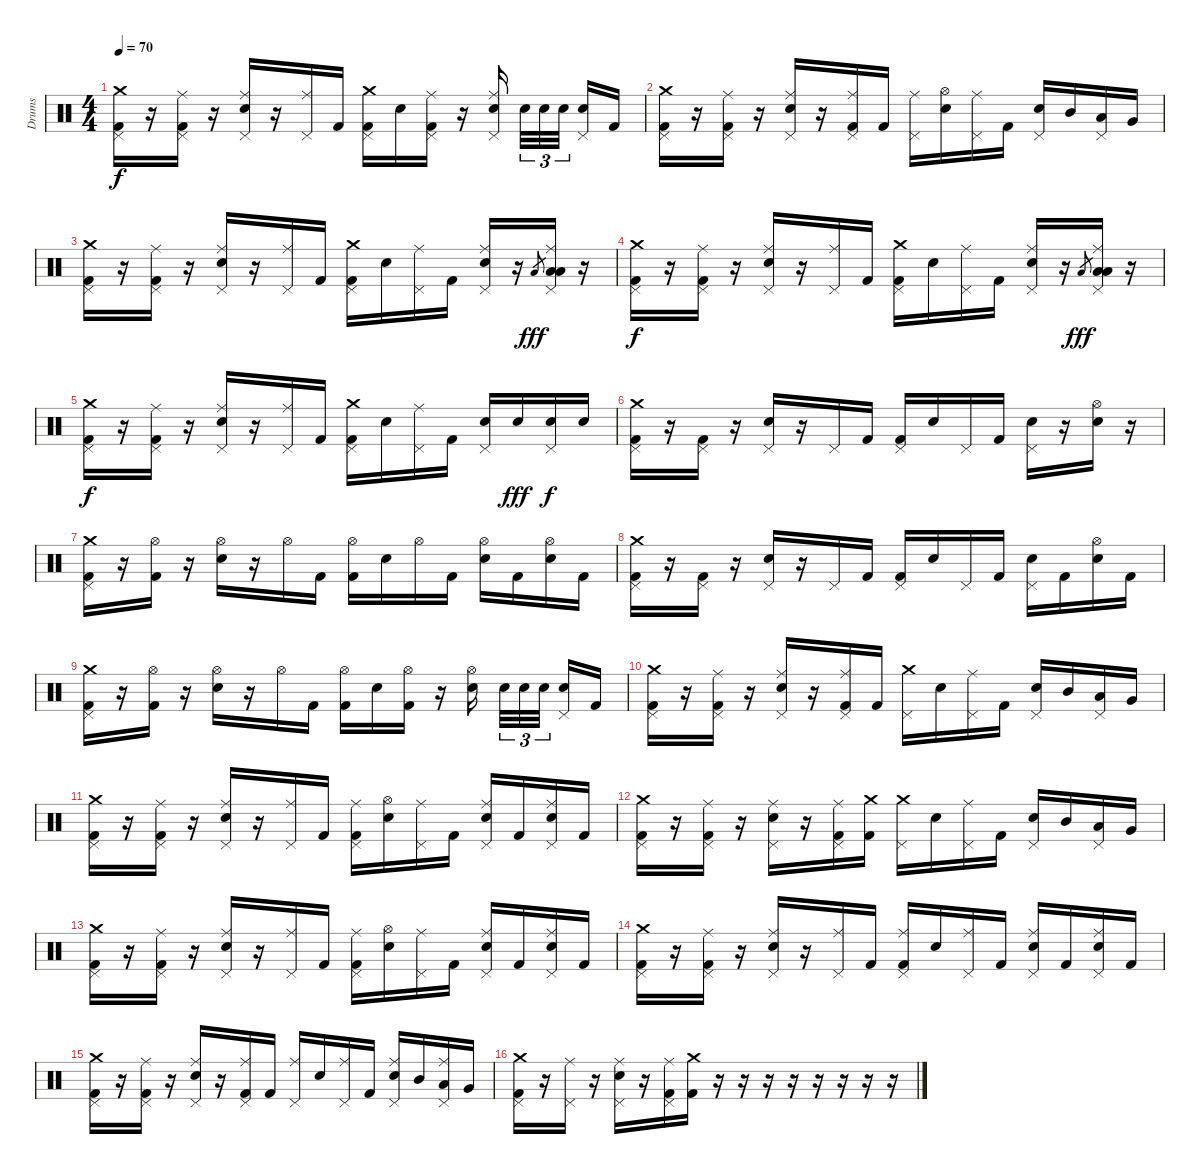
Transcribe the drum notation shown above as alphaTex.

\track ("Drums" "Drums") {instrument percussion}
\staff {score}
\articulation defaults
\ts (4 4)
\tempo 70
\clef neutral
\ks c
("Crash medium (hit)" "Pedal Hi-Hat (hit)" "Kick (hit) 2").16{dy f} r.16 ("Ride (middle)" "Pedal Hi-Hat (hit)" "Kick (hit) 2").16 r.16 ("Ride (middle)" "Pedal Hi-Hat (hit)" "Snare (hit) 2").16 r.16 ("Ride (middle)" "Pedal Hi-Hat (hit)").16 "Kick (hit) 2".16 ("Crash medium (hit)" "Pedal Hi-Hat (hit)" "Kick (hit) 2").16 "Snare (hit) 2".16 ("Ride (middle)" "Pedal Hi-Hat (hit)" "Kick (hit) 2").16 r.16 ("Ride (middle)" "Pedal Hi-Hat (hit)" "Snare (hit) 2").16 "Snare (hit) 2".32{tu (3 2)} "Snare (hit) 2".32{tu (3 2)} "Snare (hit) 2".32{tu (3 2)} ("Pedal Hi-Hat (hit)" "Snare (hit) 2").16 "Kick (hit) 2".16 |
("Crash medium (hit)" "Pedal Hi-Hat (hit)" "Kick (hit) 2").16 r.16 ("Ride (middle)" "Pedal Hi-Hat (hit)" "Kick (hit) 2").16 r.16 ("Ride (middle)" "Pedal Hi-Hat (hit)" "Snare (hit) 2").16 r.16 ("Ride (middle)" "Pedal Hi-Hat (hit)" "Kick (hit) 2").16 "Kick (hit) 2".16 ("Ride (middle)" "Pedal Hi-Hat (hit)").16 ("Hi-Hat (open)" "Snare (hit) 2").16 ("Ride (middle)" "Pedal Hi-Hat (hit)").16 "Kick (hit) 2".16 ("Pedal Hi-Hat (hit)" "Snare (hit) 2").16 "Mid Tom (hit)".16 ("Pedal Hi-Hat (hit)" "Low Tom (hit)").16 "Very Low Tom (hit)".16 |
("Crash medium (hit)" "Pedal Hi-Hat (hit)" "Kick (hit) 2").16 r.16 ("Ride (middle)" "Pedal Hi-Hat (hit)" "Kick (hit) 2").16 r.16 ("Ride (middle)" "Pedal Hi-Hat (hit)" "Snare (hit) 2").16 r.16 ("Ride (middle)" "Pedal Hi-Hat (hit)").16 "Kick (hit) 2".16 ("Crash medium (hit)" "Pedal Hi-Hat (hit)" "Kick (hit) 2").16 "Snare (hit) 2".16 ("Ride (middle)" "Pedal Hi-Hat (hit)").16 "Kick (hit) 2".16 ("Ride (middle)" "Pedal Hi-Hat (hit)" "Snare (hit) 2").16 r.16 "Low Tom (hit)".8{gr dy fff} ("Ride (middle)" "Pedal Hi-Hat (hit)" "Low Tom (hit)" "Low Tom (hit)").16 r.16 |
("Crash medium (hit)" "Pedal Hi-Hat (hit)" "Kick (hit) 2").16{dy f} r.16 ("Ride (middle)" "Pedal Hi-Hat (hit)" "Kick (hit) 2").16 r.16 ("Ride (middle)" "Pedal Hi-Hat (hit)" "Snare (hit) 2").16 r.16 ("Ride (middle)" "Pedal Hi-Hat (hit)").16 "Kick (hit) 2".16 ("Crash medium (hit)" "Pedal Hi-Hat (hit)" "Kick (hit) 2").16 "Snare (hit) 2".16 ("Ride (middle)" "Pedal Hi-Hat (hit)").16 "Kick (hit) 2".16 ("Ride (middle)" "Pedal Hi-Hat (hit)" "Snare (hit) 2").16 r.16 "Low Tom (hit)".8{gr dy fff} ("Ride (middle)" "Pedal Hi-Hat (hit)" "Low Tom (hit)" "Low Tom (hit)").16 r.16 |
("Crash medium (hit)" "Pedal Hi-Hat (hit)" "Kick (hit) 2").16{dy f} r.16 ("Ride (middle)" "Pedal Hi-Hat (hit)" "Kick (hit) 2").16 r.16 ("Ride (middle)" "Pedal Hi-Hat (hit)" "Snare (hit) 2").16 r.16 ("Ride (middle)" "Pedal Hi-Hat (hit)").16 "Kick (hit) 2".16 ("Crash medium (hit)" "Pedal Hi-Hat (hit)" "Kick (hit) 2").16 "Snare (hit) 2".16 ("Ride (middle)" "Pedal Hi-Hat (hit)").16 "Kick (hit) 2".16 ("Pedal Hi-Hat (hit)" "Snare (hit) 2").16 "Snare (hit) 2".16{dy fff} ("Pedal Hi-Hat (hit)" "Snare (hit) 2").16{dy f} "Snare (hit) 2".16 |
("Crash medium (hit)" "Pedal Hi-Hat (hit)" "Kick (hit) 2").16 r.16 ("Pedal Hi-Hat (hit)" "Kick (hit) 2").16 r.16 ("Pedal Hi-Hat (hit)" "Snare (hit) 2").16 r.16 "Pedal Hi-Hat (hit)".16 "Kick (hit) 2".16 ("Pedal Hi-Hat (hit)" "Kick (hit) 2").16 "Snare (hit) 2".16 "Pedal Hi-Hat (hit)".16 "Kick (hit) 2".16 ("Pedal Hi-Hat (hit)" "Snare (hit) 2").16 r.16 ("Hi-Hat (open)" "Snare (hit) 2").16 r.16 |
("Crash medium (hit)" "Pedal Hi-Hat (hit)" "Kick (hit) 2").16 r.16 ("Hi-Hat (open)" "Kick (hit) 2").16 r.16 ("Hi-Hat (open)" "Snare (hit) 2").16 r.16 "Hi-Hat (open)".16 "Kick (hit) 2".16 ("Hi-Hat (open)" "Kick (hit) 2").16 "Snare (hit) 2".16 "Hi-Hat (open)".16 "Kick (hit) 2".16 ("Hi-Hat (open)" "Snare (hit) 2").16 "Kick (hit) 2".16 ("Hi-Hat (open)" "Snare (hit) 2").16 "Kick (hit) 2".16 |
("Crash medium (hit)" "Pedal Hi-Hat (hit)" "Kick (hit) 2").16 r.16 ("Pedal Hi-Hat (hit)" "Kick (hit) 2").16 r.16 ("Pedal Hi-Hat (hit)" "Snare (hit) 2").16 r.16 "Pedal Hi-Hat (hit)".16 "Kick (hit) 2".16 ("Pedal Hi-Hat (hit)" "Kick (hit) 2").16 "Snare (hit) 2".16 "Pedal Hi-Hat (hit)".16 "Kick (hit) 2".16 ("Pedal Hi-Hat (hit)" "Snare (hit) 2").16 "Kick (hit) 2".16 ("Hi-Hat (open)" "Snare (hit) 2").16 "Kick (hit) 2".16 |
("Crash medium (hit)" "Pedal Hi-Hat (hit)" "Kick (hit) 2").16 r.16 ("Hi-Hat (open)" "Kick (hit) 2").16 r.16 ("Hi-Hat (open)" "Snare (hit) 2").16 r.16 "Hi-Hat (open)".16 "Kick (hit) 2".16 ("Hi-Hat (open)" "Kick (hit) 2").16 "Snare (hit) 2".16 ("Hi-Hat (open)" "Kick (hit) 2").16 r.16 ("Hi-Hat (open)" "Snare (hit) 2").16 "Snare (hit) 2".32{tu (3 2)} "Snare (hit) 2".32{tu (3 2)} "Snare (hit) 2".32{tu (3 2)} ("Pedal Hi-Hat (hit)" "Snare (hit) 2").16 "Kick (hit) 2".16 |
("Crash medium (hit)" "Pedal Hi-Hat (hit)" "Kick (hit) 2").16 r.16 ("Ride (middle)" "Pedal Hi-Hat (hit)" "Kick (hit) 2").16 r.16 ("Ride (middle)" "Pedal Hi-Hat (hit)" "Snare (hit) 2").16 r.16 ("Ride (middle)" "Pedal Hi-Hat (hit)" "Kick (hit) 2").16 "Kick (hit) 2".16 ("Crash medium (hit)" "Pedal Hi-Hat (hit)").16 "Snare (hit) 2".16 ("Ride (middle)" "Pedal Hi-Hat (hit)").16 "Kick (hit) 2".16 ("Pedal Hi-Hat (hit)" "Snare (hit) 2").16 "Mid Tom (hit)".16 ("Pedal Hi-Hat (hit)" "Low Tom (hit)").16 "Very Low Tom (hit)".16 |
("Crash medium (hit)" "Pedal Hi-Hat (hit)" "Kick (hit) 2").16 r.16 ("Ride (middle)" "Pedal Hi-Hat (hit)" "Kick (hit) 2").16 r.16 ("Ride (middle)" "Pedal Hi-Hat (hit)" "Snare (hit) 2").16 r.16 ("Ride (middle)" "Pedal Hi-Hat (hit)").16 "Kick (hit) 2".16 ("Ride (middle)" "Pedal Hi-Hat (hit)" "Kick (hit) 2").16 ("Hi-Hat (open)" "Snare (hit) 2").16 ("Ride (middle)" "Pedal Hi-Hat (hit)").16 "Kick (hit) 2".16 ("Ride (middle)" "Pedal Hi-Hat (hit)" "Snare (hit) 2").16 "Kick (hit) 2".16 ("Ride (middle)" "Pedal Hi-Hat (hit)" "Snare (hit) 2").16 "Kick (hit) 2".16 |
("Crash medium (hit)" "Pedal Hi-Hat (hit)" "Kick (hit) 2").16 r.16 ("Ride (middle)" "Pedal Hi-Hat (hit)" "Kick (hit) 2").16 r.16 ("Ride (middle)" "Pedal Hi-Hat (hit)" "Snare (hit) 2").16 r.16 ("Ride (middle)" "Pedal Hi-Hat (hit)" "Kick (hit) 2").16 ("Crash medium (hit)" "Kick (hit) 2").16 ("Crash medium (hit)" "Pedal Hi-Hat (hit)").16 "Snare (hit) 2".16 ("Ride (middle)" "Pedal Hi-Hat (hit)").16 "Kick (hit) 2".16 ("Pedal Hi-Hat (hit)" "Snare (hit) 2").16 "Mid Tom (hit)".16 ("Pedal Hi-Hat (hit)" "Low Tom (hit)").16 "Very Low Tom (hit)".16 |
("Crash medium (hit)" "Pedal Hi-Hat (hit)" "Kick (hit) 2").16 r.16 ("Ride (middle)" "Pedal Hi-Hat (hit)" "Kick (hit) 2").16 r.16 ("Ride (middle)" "Pedal Hi-Hat (hit)" "Snare (hit) 2").16 r.16 ("Ride (middle)" "Pedal Hi-Hat (hit)").16 "Kick (hit) 2".16 ("Ride (middle)" "Pedal Hi-Hat (hit)" "Kick (hit) 2").16 ("Hi-Hat (open)" "Snare (hit) 2").16 ("Ride (middle)" "Pedal Hi-Hat (hit)").16 "Kick (hit) 2".16 ("Ride (middle)" "Pedal Hi-Hat (hit)" "Snare (hit) 2").16 "Kick (hit) 2".16 ("Ride (middle)" "Pedal Hi-Hat (hit)" "Snare (hit) 2").16 "Kick (hit) 2".16 |
("Crash medium (hit)" "Pedal Hi-Hat (hit)" "Kick (hit) 2").16 r.16 ("Ride (middle)" "Pedal Hi-Hat (hit)" "Kick (hit) 2").16 r.16 ("Ride (middle)" "Pedal Hi-Hat (hit)" "Snare (hit) 2").16 r.16 ("Ride (middle)" "Pedal Hi-Hat (hit)").16 "Kick (hit) 2".16 ("Ride (middle)" "Pedal Hi-Hat (hit)" "Kick (hit) 2").16 "Snare (hit) 2".16 ("Ride (middle)" "Pedal Hi-Hat (hit)").16 "Kick (hit) 2".16 ("Ride (middle)" "Pedal Hi-Hat (hit)" "Snare (hit) 2").16 "Kick (hit) 2".16 ("Ride (middle)" "Pedal Hi-Hat (hit)" "Snare (hit) 2").16 "Kick (hit) 2".16 |
("Crash medium (hit)" "Pedal Hi-Hat (hit)" "Kick (hit) 2").16 r.16 ("Ride (middle)" "Pedal Hi-Hat (hit)" "Kick (hit) 2").16 r.16 ("Ride (middle)" "Pedal Hi-Hat (hit)" "Snare (hit) 2").16 r.16 ("Ride (middle)" "Pedal Hi-Hat (hit)" "Kick (hit) 2").16 "Kick (hit) 2".16 ("Ride (middle)" "Pedal Hi-Hat (hit)").16 "Snare (hit) 2".16 ("Ride (middle)" "Pedal Hi-Hat (hit)").16 "Kick (hit) 2".16 ("Ride (middle)" "Pedal Hi-Hat (hit)" "Snare (hit) 2").16 "Mid Tom (hit)".16 ("Ride (middle)" "Pedal Hi-Hat (hit)" "Low Tom (hit)").16 "Very Low Tom (hit)".16 |
("Crash medium (hit)" "Pedal Hi-Hat (hit)" "Kick (hit) 2").16 r.16 ("Ride (middle)" "Pedal Hi-Hat (hit)").16 r.16 ("Ride (middle)" "Pedal Hi-Hat (hit)" "Snare (hit) 2").16 r.16 ("Ride (middle)" "Pedal Hi-Hat (hit)" "Kick (hit) 2").16 ("Crash medium (hit)" "Kick (hit) 2").16 r.16 r.16 r.16 r.16 r.16 r.16 r.16 r.16
